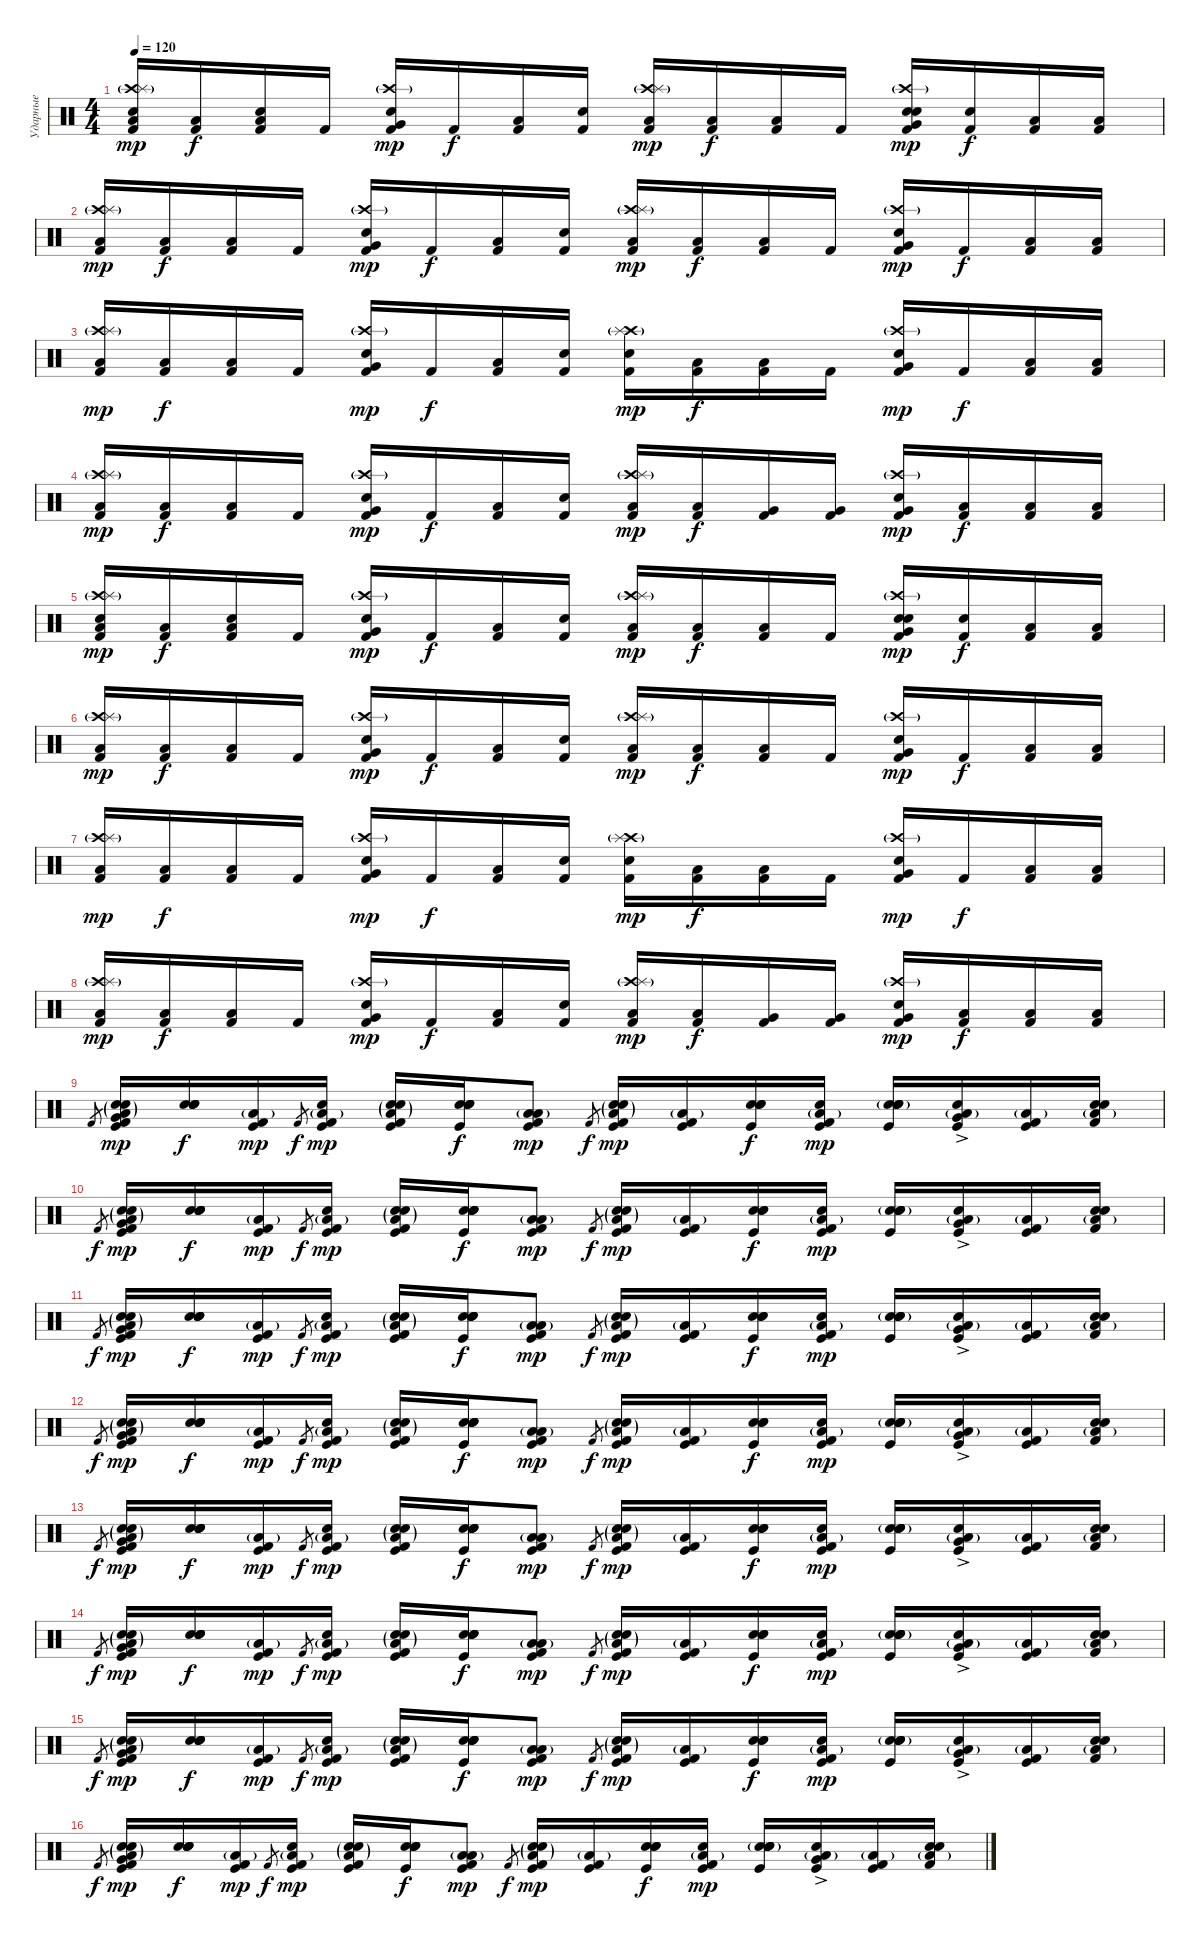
\track ("Ударные" "Ударные") {instrument percussion bank 2}
\staff {score}
\articulation defaults
\ts (4 4)
\tempo 120
\clef neutral
\ks c
("Kick (hit) 2" "Snare (hit)" "Crash high (hit)"{g} "Splash (hit)"{g} "Low Floor Tom (hit)").16{dy mp} ("Kick (hit) 2" "Low Floor Tom (hit)").16{dy f} ("Kick (hit) 2" "Snare (hit)" "Low Floor Tom (hit)").16 "Kick (hit) 2".16 ("Kick (hit) 2" "Electric Snare (hit)" "Crash high (hit)"{g} "Very Low Tom (hit)").16{dy mp} "Kick (hit) 2".16{dy f} ("Kick (hit) 2" "Low Floor Tom (hit)").16 ("Kick (hit) 2" "Snare (hit)").16 ("Kick (hit) 2" "Crash high (hit)"{g} "Splash (hit)"{g} "Low Floor Tom (hit)").16{dy mp} ("Kick (hit) 2" "Low Floor Tom (hit)").16{dy f} ("Kick (hit) 2" "Low Floor Tom (hit)").16 "Kick (hit) 2".16 ("Kick (hit) 2" "Electric Snare (hit)" "Snare (hit)" "Crash high (hit)"{g} "Very Low Tom (hit)").16{dy mp} ("Kick (hit) 2" "Snare (hit)").16{dy f} ("Kick (hit) 2" "Low Tom (hit)").16 ("Kick (hit) 2" "Low Floor Tom (hit)").16 |
("Kick (hit) 2" "Crash high (hit)"{g} "Splash (hit)"{g} "Low Floor Tom (hit)").16{dy mp} ("Kick (hit) 2" "Low Floor Tom (hit)").16{dy f} ("Kick (hit) 2" "Low Floor Tom (hit)").16 "Kick (hit) 2".16 ("Kick (hit) 2" "Electric Snare (hit)" "Crash high (hit)"{g} "Very Low Tom (hit)").16{dy mp} "Kick (hit) 2".16{dy f} ("Kick (hit) 2" "Low Floor Tom (hit)").16 ("Kick (hit) 2" "Snare (hit)").16 ("Kick (hit) 2" "Crash high (hit)"{g} "Splash (hit)"{g} "Low Floor Tom (hit)").16{dy mp} ("Kick (hit) 2" "Low Floor Tom (hit)").16{dy f} ("Kick (hit) 2" "Low Floor Tom (hit)").16 "Kick (hit) 2".16 ("Kick (hit) 2" "Electric Snare (hit)" "Crash high (hit)"{g} "Very Low Tom (hit)").16{dy mp} "Kick (hit) 2".16{dy f} ("Kick (hit) 2" "Low Tom (hit)").16 ("Kick (hit) 2" "Low Floor Tom (hit)").16 |
("Kick (hit) 2" "Crash high (hit)"{g} "Splash (hit)"{g} "Low Floor Tom (hit)").16{dy mp} ("Kick (hit) 2" "Low Floor Tom (hit)").16{dy f} ("Kick (hit) 2" "Low Floor Tom (hit)").16 "Kick (hit) 2".16 ("Kick (hit) 2" "Electric Snare (hit)" "Crash high (hit)"{g} "Very Low Tom (hit)").16{dy mp} "Kick (hit) 2".16{dy f} ("Kick (hit) 2" "Low Floor Tom (hit)").16 ("Kick (hit) 2" "Snare (hit)").16 ("Kick (hit) 2" "Crash high (hit)"{g} "Splash (hit)"{g} "Snare (hit)").16{dy mp} ("Kick (hit) 2" "Low Floor Tom (hit)").16{dy f} ("Kick (hit) 2" "Low Floor Tom (hit)").16 "Kick (hit) 2".16 ("Kick (hit) 2" "Electric Snare (hit)" "Crash high (hit)"{g} "Very Low Tom (hit)").16{dy mp} "Kick (hit) 2".16{dy f} ("Kick (hit) 2" "Low Tom (hit)").16 ("Kick (hit) 2" "Low Floor Tom (hit)").16 |
("Kick (hit) 2" "Crash high (hit)"{g} "Splash (hit)"{g} "Low Floor Tom (hit)").16{dy mp} ("Kick (hit) 2" "Low Floor Tom (hit)").16{dy f} ("Kick (hit) 2" "Low Floor Tom (hit)").16 "Kick (hit) 2".16 ("Kick (hit) 2" "Electric Snare (hit)" "Crash high (hit)"{g} "Very Low Tom (hit)").16{dy mp} "Kick (hit) 2".16{dy f} ("Kick (hit) 2" "Low Floor Tom (hit)").16 ("Kick (hit) 2" "Snare (hit)").16 ("Kick (hit) 2" "Crash high (hit)"{g} "Splash (hit)"{g} "Low Floor Tom (hit)").16{dy mp} ("Kick (hit) 2" "Low Floor Tom (hit)").16{dy f} ("Kick (hit) 2" "Very Low Tom (hit)").16 ("Kick (hit) 2" "Very Low Tom (hit)").16 ("Kick (hit) 2" "Electric Snare (hit)" "Crash high (hit)"{g} "Very Low Tom (hit)").16{dy mp} ("Kick (hit) 2" "Low Tom (hit)").16{dy f} ("Kick (hit) 2" "Low Tom (hit)").16 ("Kick (hit) 2" "Low Tom (hit)").16 |
("Kick (hit) 2" "Snare (hit)" "Crash high (hit)"{g} "Splash (hit)"{g} "Low Floor Tom (hit)").16{dy mp} ("Kick (hit) 2" "Low Floor Tom (hit)").16{dy f} ("Kick (hit) 2" "Snare (hit)" "Low Floor Tom (hit)").16 "Kick (hit) 2".16 ("Kick (hit) 2" "Electric Snare (hit)" "Crash high (hit)"{g} "Very Low Tom (hit)").16{dy mp} "Kick (hit) 2".16{dy f} ("Kick (hit) 2" "Low Floor Tom (hit)").16 ("Kick (hit) 2" "Snare (hit)").16 ("Kick (hit) 2" "Crash high (hit)"{g} "Splash (hit)"{g} "Low Floor Tom (hit)").16{dy mp} ("Kick (hit) 2" "Low Floor Tom (hit)").16{dy f} ("Kick (hit) 2" "Low Floor Tom (hit)").16 "Kick (hit) 2".16 ("Kick (hit) 2" "Electric Snare (hit)" "Snare (hit)" "Crash high (hit)"{g} "Very Low Tom (hit)").16{dy mp} ("Kick (hit) 2" "Snare (hit)").16{dy f} ("Kick (hit) 2" "Low Tom (hit)").16 ("Kick (hit) 2" "Low Floor Tom (hit)").16 |
("Kick (hit) 2" "Crash high (hit)"{g} "Splash (hit)"{g} "Low Floor Tom (hit)").16{dy mp} ("Kick (hit) 2" "Low Floor Tom (hit)").16{dy f} ("Kick (hit) 2" "Low Floor Tom (hit)").16 "Kick (hit) 2".16 ("Kick (hit) 2" "Electric Snare (hit)" "Crash high (hit)"{g} "Very Low Tom (hit)").16{dy mp} "Kick (hit) 2".16{dy f} ("Kick (hit) 2" "Low Floor Tom (hit)").16 ("Kick (hit) 2" "Snare (hit)").16 ("Kick (hit) 2" "Crash high (hit)"{g} "Splash (hit)"{g} "Low Floor Tom (hit)").16{dy mp} ("Kick (hit) 2" "Low Floor Tom (hit)").16{dy f} ("Kick (hit) 2" "Low Floor Tom (hit)").16 "Kick (hit) 2".16 ("Kick (hit) 2" "Electric Snare (hit)" "Crash high (hit)"{g} "Very Low Tom (hit)").16{dy mp} "Kick (hit) 2".16{dy f} ("Kick (hit) 2" "Low Tom (hit)").16 ("Kick (hit) 2" "Low Floor Tom (hit)").16 |
("Kick (hit) 2" "Crash high (hit)"{g} "Splash (hit)"{g} "Low Floor Tom (hit)").16{dy mp} ("Kick (hit) 2" "Low Floor Tom (hit)").16{dy f} ("Kick (hit) 2" "Low Floor Tom (hit)").16 "Kick (hit) 2".16 ("Kick (hit) 2" "Electric Snare (hit)" "Crash high (hit)"{g} "Very Low Tom (hit)").16{dy mp} "Kick (hit) 2".16{dy f} ("Kick (hit) 2" "Low Floor Tom (hit)").16 ("Kick (hit) 2" "Snare (hit)").16 ("Kick (hit) 2" "Crash high (hit)"{g} "Splash (hit)"{g} "Snare (hit)").16{dy mp} ("Kick (hit) 2" "Low Floor Tom (hit)").16{dy f} ("Kick (hit) 2" "Low Floor Tom (hit)").16 "Kick (hit) 2".16 ("Kick (hit) 2" "Electric Snare (hit)" "Crash high (hit)"{g} "Very Low Tom (hit)").16{dy mp} "Kick (hit) 2".16{dy f} ("Kick (hit) 2" "Low Tom (hit)").16 ("Kick (hit) 2" "Low Floor Tom (hit)").16 |
("Kick (hit) 2" "Crash high (hit)"{g} "Splash (hit)"{g} "Low Floor Tom (hit)").16{dy mp} ("Kick (hit) 2" "Low Floor Tom (hit)").16{dy f} ("Kick (hit) 2" "Low Floor Tom (hit)").16 "Kick (hit) 2".16 ("Kick (hit) 2" "Electric Snare (hit)" "Crash high (hit)"{g} "Very Low Tom (hit)").16{dy mp} "Kick (hit) 2".16{dy f} ("Kick (hit) 2" "Low Floor Tom (hit)").16 ("Kick (hit) 2" "Snare (hit)").16 ("Kick (hit) 2" "Crash high (hit)"{g} "Splash (hit)"{g} "Low Floor Tom (hit)").16{dy mp} ("Kick (hit) 2" "Low Floor Tom (hit)").16{dy f} ("Kick (hit) 2" "Very Low Tom (hit)").16 ("Kick (hit) 2" "Very Low Tom (hit)").16 ("Kick (hit) 2" "Electric Snare (hit)" "Crash high (hit)"{g} "Very Low Tom (hit)").16{dy mp} ("Kick (hit) 2" "Low Tom (hit)").16{dy f} ("Kick (hit) 2" "Low Tom (hit)").16 ("Kick (hit) 2" "Low Tom (hit)").16 |
"Kick (hit) 2".8{gr} ("Kick (hit) 2" "Very Low Tom (hit)" "Kick (hit)" "Snare (hit) 2" "Low Floor Tom (hit)"{g} "Electric Snare (hit)"{g}).16{dy mp} ("Snare (hit)" "Snare (hit)" "Snare (hit)" "Snare (hit)").16{dy f} ("Kick (hit) 2" "Kick (hit)" "Low Floor Tom (hit)"{g}).16{dy mp} "Kick (hit) 2".8{gr dy f} ("Kick (hit) 2" "Kick (hit)" "Snare (hit)" "Low Floor Tom (hit)"{g}).16{dy mp} ("Kick (hit) 2" "Kick (hit)" "Snare (hit) 2" "Low Floor Tom (hit)"{g} "Electric Snare (hit)"{g}).16 ("Snare (hit)" "Snare (hit)" "Kick (hit)" "Snare (hit)" "Snare (hit)").16{dy f} ("Kick (hit) 2" "Low Tom (hit)" "Kick (hit)" "Low Floor Tom (hit)"{g}).8{dy mp} "Kick (hit) 2".8{gr dy f} ("Kick (hit) 2" "Kick (hit)" "Snare (hit) 2" "Low Floor Tom (hit)"{g} "Electric Snare (hit)"{g}).16{dy mp} ("Kick (hit) 2" "Kick (hit)" "Low Floor Tom (hit)"{g}).16 ("Snare (hit)" "Kick (hit)" "Snare (hit)" "Snare (hit)").16{dy f} ("Kick (hit) 2" "Kick (hit)" "Snare (hit)" "Low Floor Tom (hit)"{g}).16{dy mp} ("Snare (hit)" "Kick (hit)" "Snare (hit) 2" "Snare (hit)" "Electric Snare (hit)"{g}).16 ("Snare (hit)" "Very Low Tom (hit)" "Kick (hit)"{ac} "Low Floor Tom (hit)"{g}).16 ("Kick (hit) 2" "Kick (hit)" "Low Floor Tom (hit)"{g}).16 ("Kick (hit) 2" "Snare (hit)" "Snare (hit)" "Low Floor Tom (hit)"{g}).16 |
"Kick (hit) 2".8{gr dy f} ("Kick (hit) 2" "Very Low Tom (hit)" "Kick (hit)" "Snare (hit) 2" "Low Floor Tom (hit)"{g} "Electric Snare (hit)"{g}).16{dy mp} ("Snare (hit)" "Snare (hit)" "Snare (hit)" "Snare (hit)").16{dy f} ("Kick (hit) 2" "Kick (hit)" "Low Floor Tom (hit)"{g}).16{dy mp} "Kick (hit) 2".8{gr dy f} ("Kick (hit) 2" "Kick (hit)" "Snare (hit)" "Low Floor Tom (hit)"{g}).16{dy mp} ("Kick (hit) 2" "Kick (hit)" "Snare (hit) 2" "Low Floor Tom (hit)"{g} "Electric Snare (hit)"{g}).16 ("Snare (hit)" "Snare (hit)" "Kick (hit)" "Snare (hit)" "Snare (hit)").16{dy f} ("Kick (hit) 2" "Low Tom (hit)" "Kick (hit)" "Low Floor Tom (hit)"{g}).8{dy mp} "Kick (hit) 2".8{gr dy f} ("Kick (hit) 2" "Kick (hit)" "Snare (hit) 2" "Low Floor Tom (hit)"{g} "Electric Snare (hit)"{g}).16{dy mp} ("Kick (hit) 2" "Kick (hit)" "Low Floor Tom (hit)"{g}).16 ("Snare (hit)" "Kick (hit)" "Snare (hit)" "Snare (hit)").16{dy f} ("Kick (hit) 2" "Kick (hit)" "Snare (hit)" "Low Floor Tom (hit)"{g}).16{dy mp} ("Snare (hit)" "Kick (hit)" "Snare (hit) 2" "Snare (hit)" "Electric Snare (hit)"{g}).16 ("Snare (hit)" "Very Low Tom (hit)" "Kick (hit)"{ac} "Low Floor Tom (hit)"{g}).16 ("Kick (hit) 2" "Kick (hit)" "Low Floor Tom (hit)"{g}).16 ("Kick (hit) 2" "Snare (hit)" "Snare (hit)" "Low Floor Tom (hit)"{g}).16 |
"Kick (hit) 2".8{gr dy f} ("Kick (hit) 2" "Very Low Tom (hit)" "Kick (hit)" "Snare (hit) 2" "Low Floor Tom (hit)"{g} "Electric Snare (hit)"{g}).16{dy mp} ("Snare (hit)" "Snare (hit)" "Snare (hit)" "Snare (hit)").16{dy f} ("Kick (hit) 2" "Kick (hit)" "Low Floor Tom (hit)"{g}).16{dy mp} "Kick (hit) 2".8{gr dy f} ("Kick (hit) 2" "Kick (hit)" "Snare (hit)" "Low Floor Tom (hit)"{g}).16{dy mp} ("Kick (hit) 2" "Kick (hit)" "Snare (hit) 2" "Low Floor Tom (hit)"{g} "Electric Snare (hit)"{g}).16 ("Snare (hit)" "Snare (hit)" "Kick (hit)" "Snare (hit)" "Snare (hit)").16{dy f} ("Kick (hit) 2" "Low Tom (hit)" "Kick (hit)" "Low Floor Tom (hit)"{g}).8{dy mp} "Kick (hit) 2".8{gr dy f} ("Kick (hit) 2" "Kick (hit)" "Snare (hit) 2" "Low Floor Tom (hit)"{g} "Electric Snare (hit)"{g}).16{dy mp} ("Kick (hit) 2" "Kick (hit)" "Low Floor Tom (hit)"{g}).16 ("Snare (hit)" "Kick (hit)" "Snare (hit)" "Snare (hit)").16{dy f} ("Kick (hit) 2" "Kick (hit)" "Snare (hit)" "Low Floor Tom (hit)"{g}).16{dy mp} ("Snare (hit)" "Kick (hit)" "Snare (hit) 2" "Snare (hit)" "Electric Snare (hit)"{g}).16 ("Snare (hit)" "Very Low Tom (hit)" "Kick (hit)"{ac} "Low Floor Tom (hit)"{g}).16 ("Kick (hit) 2" "Kick (hit)" "Low Floor Tom (hit)"{g}).16 ("Kick (hit) 2" "Snare (hit)" "Snare (hit)" "Low Floor Tom (hit)"{g}).16 |
"Kick (hit) 2".8{gr dy f} ("Kick (hit) 2" "Very Low Tom (hit)" "Kick (hit)" "Snare (hit) 2" "Low Floor Tom (hit)"{g} "Electric Snare (hit)"{g}).16{dy mp} ("Snare (hit)" "Snare (hit)" "Snare (hit)" "Snare (hit)").16{dy f} ("Kick (hit) 2" "Kick (hit)" "Low Floor Tom (hit)"{g}).16{dy mp} "Kick (hit) 2".8{gr dy f} ("Kick (hit) 2" "Kick (hit)" "Snare (hit)" "Low Floor Tom (hit)"{g}).16{dy mp} ("Kick (hit) 2" "Kick (hit)" "Snare (hit) 2" "Low Floor Tom (hit)"{g} "Electric Snare (hit)"{g}).16 ("Snare (hit)" "Snare (hit)" "Kick (hit)" "Snare (hit)" "Snare (hit)").16{dy f} ("Kick (hit) 2" "Low Tom (hit)" "Kick (hit)" "Low Floor Tom (hit)"{g}).8{dy mp} "Kick (hit) 2".8{gr dy f} ("Kick (hit) 2" "Kick (hit)" "Snare (hit) 2" "Low Floor Tom (hit)"{g} "Electric Snare (hit)"{g}).16{dy mp} ("Kick (hit) 2" "Kick (hit)" "Low Floor Tom (hit)"{g}).16 ("Snare (hit)" "Kick (hit)" "Snare (hit)" "Snare (hit)").16{dy f} ("Kick (hit) 2" "Kick (hit)" "Snare (hit)" "Low Floor Tom (hit)"{g}).16{dy mp} ("Snare (hit)" "Kick (hit)" "Snare (hit) 2" "Snare (hit)" "Electric Snare (hit)"{g}).16 ("Snare (hit)" "Very Low Tom (hit)" "Kick (hit)"{ac} "Low Floor Tom (hit)"{g}).16 ("Kick (hit) 2" "Kick (hit)" "Low Floor Tom (hit)"{g}).16 ("Kick (hit) 2" "Snare (hit)" "Snare (hit)" "Low Floor Tom (hit)"{g}).16 |
"Kick (hit) 2".8{gr dy f} ("Kick (hit) 2" "Very Low Tom (hit)" "Kick (hit)" "Snare (hit) 2" "Low Floor Tom (hit)"{g} "Electric Snare (hit)"{g}).16{dy mp} ("Snare (hit)" "Snare (hit)" "Snare (hit)" "Snare (hit)").16{dy f} ("Kick (hit) 2" "Kick (hit)" "Low Floor Tom (hit)"{g}).16{dy mp} "Kick (hit) 2".8{gr dy f} ("Kick (hit) 2" "Kick (hit)" "Snare (hit)" "Low Floor Tom (hit)"{g}).16{dy mp} ("Kick (hit) 2" "Kick (hit)" "Snare (hit) 2" "Low Floor Tom (hit)"{g} "Electric Snare (hit)"{g}).16 ("Snare (hit)" "Snare (hit)" "Kick (hit)" "Snare (hit)" "Snare (hit)").16{dy f} ("Kick (hit) 2" "Low Tom (hit)" "Kick (hit)" "Low Floor Tom (hit)"{g}).8{dy mp} "Kick (hit) 2".8{gr dy f} ("Kick (hit) 2" "Kick (hit)" "Snare (hit) 2" "Low Floor Tom (hit)"{g} "Electric Snare (hit)"{g}).16{dy mp} ("Kick (hit) 2" "Kick (hit)" "Low Floor Tom (hit)"{g}).16 ("Snare (hit)" "Kick (hit)" "Snare (hit)" "Snare (hit)").16{dy f} ("Kick (hit) 2" "Kick (hit)" "Snare (hit)" "Low Floor Tom (hit)"{g}).16{dy mp} ("Snare (hit)" "Kick (hit)" "Snare (hit) 2" "Snare (hit)" "Electric Snare (hit)"{g}).16 ("Snare (hit)" "Very Low Tom (hit)" "Kick (hit)"{ac} "Low Floor Tom (hit)"{g}).16 ("Kick (hit) 2" "Kick (hit)" "Low Floor Tom (hit)"{g}).16 ("Kick (hit) 2" "Snare (hit)" "Snare (hit)" "Low Floor Tom (hit)"{g}).16 |
"Kick (hit) 2".8{gr dy f} ("Kick (hit) 2" "Very Low Tom (hit)" "Kick (hit)" "Snare (hit) 2" "Low Floor Tom (hit)"{g} "Electric Snare (hit)"{g}).16{dy mp} ("Snare (hit)" "Snare (hit)" "Snare (hit)" "Snare (hit)").16{dy f} ("Kick (hit) 2" "Kick (hit)" "Low Floor Tom (hit)"{g}).16{dy mp} "Kick (hit) 2".8{gr dy f} ("Kick (hit) 2" "Kick (hit)" "Snare (hit)" "Low Floor Tom (hit)"{g}).16{dy mp} ("Kick (hit) 2" "Kick (hit)" "Snare (hit) 2" "Low Floor Tom (hit)"{g} "Electric Snare (hit)"{g}).16 ("Snare (hit)" "Snare (hit)" "Kick (hit)" "Snare (hit)" "Snare (hit)").16{dy f} ("Kick (hit) 2" "Low Tom (hit)" "Kick (hit)" "Low Floor Tom (hit)"{g}).8{dy mp} "Kick (hit) 2".8{gr dy f} ("Kick (hit) 2" "Kick (hit)" "Snare (hit) 2" "Low Floor Tom (hit)"{g} "Electric Snare (hit)"{g}).16{dy mp} ("Kick (hit) 2" "Kick (hit)" "Low Floor Tom (hit)"{g}).16 ("Snare (hit)" "Kick (hit)" "Snare (hit)" "Snare (hit)").16{dy f} ("Kick (hit) 2" "Kick (hit)" "Snare (hit)" "Low Floor Tom (hit)"{g}).16{dy mp} ("Snare (hit)" "Kick (hit)" "Snare (hit) 2" "Snare (hit)" "Electric Snare (hit)"{g}).16 ("Snare (hit)" "Very Low Tom (hit)" "Kick (hit)"{ac} "Low Floor Tom (hit)"{g}).16 ("Kick (hit) 2" "Kick (hit)" "Low Floor Tom (hit)"{g}).16 ("Kick (hit) 2" "Snare (hit)" "Snare (hit)" "Low Floor Tom (hit)"{g}).16 |
"Kick (hit) 2".8{gr dy f} ("Kick (hit) 2" "Very Low Tom (hit)" "Kick (hit)" "Snare (hit) 2" "Low Floor Tom (hit)"{g} "Electric Snare (hit)"{g}).16{dy mp} ("Snare (hit)" "Snare (hit)" "Snare (hit)" "Snare (hit)").16{dy f} ("Kick (hit) 2" "Kick (hit)" "Low Floor Tom (hit)"{g}).16{dy mp} "Kick (hit) 2".8{gr dy f} ("Kick (hit) 2" "Kick (hit)" "Snare (hit)" "Low Floor Tom (hit)"{g}).16{dy mp} ("Kick (hit) 2" "Kick (hit)" "Snare (hit) 2" "Low Floor Tom (hit)"{g} "Electric Snare (hit)"{g}).16 ("Snare (hit)" "Snare (hit)" "Kick (hit)" "Snare (hit)" "Snare (hit)").16{dy f} ("Kick (hit) 2" "Low Tom (hit)" "Kick (hit)" "Low Floor Tom (hit)"{g}).8{dy mp} "Kick (hit) 2".8{gr dy f} ("Kick (hit) 2" "Kick (hit)" "Snare (hit) 2" "Low Floor Tom (hit)"{g} "Electric Snare (hit)"{g}).16{dy mp} ("Kick (hit) 2" "Kick (hit)" "Low Floor Tom (hit)"{g}).16 ("Snare (hit)" "Kick (hit)" "Snare (hit)" "Snare (hit)").16{dy f} ("Kick (hit) 2" "Kick (hit)" "Snare (hit)" "Low Floor Tom (hit)"{g}).16{dy mp} ("Snare (hit)" "Kick (hit)" "Snare (hit) 2" "Snare (hit)" "Electric Snare (hit)"{g}).16 ("Snare (hit)" "Very Low Tom (hit)" "Kick (hit)"{ac} "Low Floor Tom (hit)"{g}).16 ("Kick (hit) 2" "Kick (hit)" "Low Floor Tom (hit)"{g}).16 ("Kick (hit) 2" "Snare (hit)" "Snare (hit)" "Low Floor Tom (hit)"{g}).16 |
"Kick (hit) 2".8{gr dy f} ("Kick (hit) 2" "Very Low Tom (hit)" "Kick (hit)" "Snare (hit) 2" "Low Floor Tom (hit)"{g} "Electric Snare (hit)"{g}).16{dy mp} ("Snare (hit)" "Snare (hit)" "Snare (hit)" "Snare (hit)").16{dy f} ("Kick (hit) 2" "Kick (hit)" "Low Floor Tom (hit)"{g}).16{dy mp} "Kick (hit) 2".8{gr dy f} ("Kick (hit) 2" "Kick (hit)" "Snare (hit)" "Low Floor Tom (hit)"{g}).16{dy mp} ("Kick (hit) 2" "Kick (hit)" "Snare (hit) 2" "Low Floor Tom (hit)"{g} "Electric Snare (hit)"{g}).16 ("Snare (hit)" "Snare (hit)" "Kick (hit)" "Snare (hit)" "Snare (hit)").16{dy f} ("Kick (hit) 2" "Low Tom (hit)" "Kick (hit)" "Low Floor Tom (hit)"{g}).8{dy mp} "Kick (hit) 2".8{gr dy f} ("Kick (hit) 2" "Kick (hit)" "Snare (hit) 2" "Low Floor Tom (hit)"{g} "Electric Snare (hit)"{g}).16{dy mp} ("Kick (hit) 2" "Kick (hit)" "Low Floor Tom (hit)"{g}).16 ("Snare (hit)" "Kick (hit)" "Snare (hit)" "Snare (hit)").16{dy f} ("Kick (hit) 2" "Kick (hit)" "Snare (hit)" "Low Floor Tom (hit)"{g}).16{dy mp} ("Snare (hit)" "Kick (hit)" "Snare (hit) 2" "Snare (hit)" "Electric Snare (hit)"{g}).16 ("Snare (hit)" "Very Low Tom (hit)" "Kick (hit)"{ac} "Low Floor Tom (hit)"{g}).16 ("Kick (hit) 2" "Kick (hit)" "Low Floor Tom (hit)"{g}).16 ("Kick (hit) 2" "Snare (hit)" "Snare (hit)" "Low Floor Tom (hit)"{g}).16
